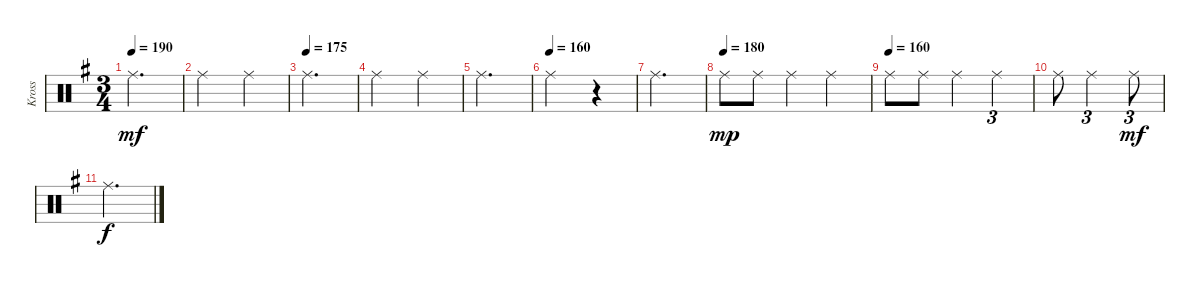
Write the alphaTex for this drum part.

\track ("Kross" "Kross") {instrument percussion}
\staff {score}
\articulation defaults
\ts (3 4)
\tempo 190
\clef neutral
\ks g "Ride (middle)".2{d dy mf}
|
"Ride (middle)".2 "Ride (middle)".4 |
\tempo (175)
"Ride (middle)".2{d} |
"Ride (middle)".2 "Ride (middle)".4 |
"Ride (middle)".2{d} |
\tempo (160)
"Ride (middle)".2 r.4 |
"Ride (middle)".2{d} |
\tempo (180)
"Ride (middle)".8{dy mp} "Ride (middle)".8 "Ride (middle)".4 "Ride (middle)".4 |
\tempo (160)
"Ride (middle)".8 "Ride (middle)".8 "Ride (middle)".4 "Ride (middle)".4{tu (3 2)} |
"Ride (middle)".8 "Ride (middle)".2{tu (3 2)} "Ride (middle)".8{tu (3 2) dy mf} |
"Ride (middle)".2{d dy f}
